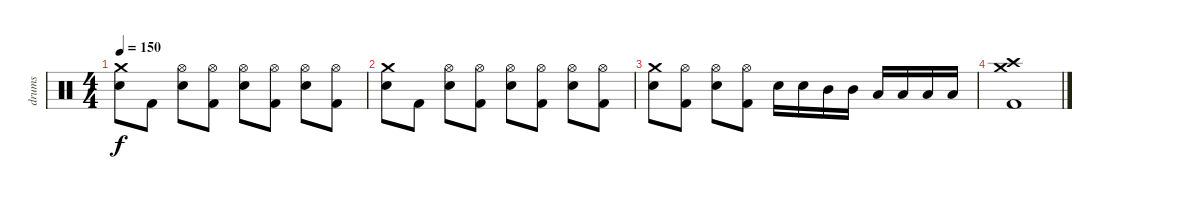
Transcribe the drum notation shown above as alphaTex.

\track ("drums" "drums") {instrument percussion}
\staff {score}
\articulation defaults
\ts (4 4)
\tempo 150
\clef neutral
\ks c
("Crash medium (hit)" "Electric Snare (hit)").8{dy f} "Kick (hit) 2".8 ("Hi-Hat (open)" "Electric Snare (hit)").8 ("Hi-Hat (open)" "Kick (hit) 2").8 ("Hi-Hat (open)" "Electric Snare (hit)").8 ("Hi-Hat (open)" "Kick (hit) 2").8 ("Hi-Hat (open)" "Electric Snare (hit)").8 ("Hi-Hat (open)" "Kick (hit) 2").8 |
("Crash medium (hit)" "Electric Snare (hit)").8 "Kick (hit) 2".8 ("Hi-Hat (open)" "Electric Snare (hit)").8 ("Hi-Hat (open)" "Kick (hit) 2").8 ("Hi-Hat (open)" "Electric Snare (hit)").8 ("Hi-Hat (open)" "Kick (hit) 2").8 ("Hi-Hat (open)" "Electric Snare (hit)").8 ("Hi-Hat (open)" "Kick (hit) 2").8 |
("Crash medium (hit)" "Electric Snare (hit)").8 ("Hi-Hat (open)" "Kick (hit) 2").8 ("Hi-Hat (open)" "Electric Snare (hit)").8 ("Hi-Hat (open)" "Kick (hit) 2").8 "Electric Snare (hit)".16 "Electric Snare (hit)".16 "Mid Tom (hit)".16 "Mid Tom (hit)".16 "Low Tom (hit)".16 "Low Tom (hit)".16 "Low Floor Tom (hit)".16 "Low Floor Tom (hit)".16 |
("Crash medium (hit)" "Crash high (hit)" "Kick (hit) 2").1
